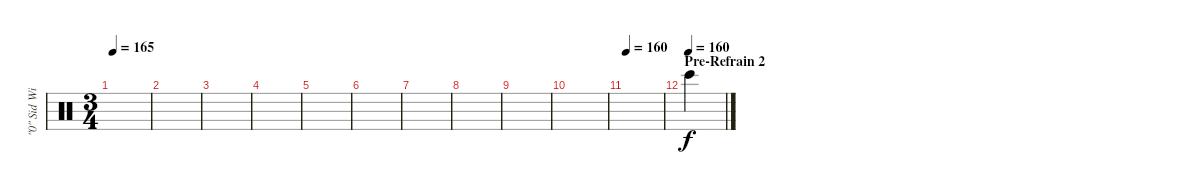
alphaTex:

\track ("\"0\" Sid Wilson (DJ)" "\"0\" Sid Wi") {instrument percussion}
\staff {score}
\articulation defaults
\ts (3 4)
\tempo 165
\clef neutral
\ks c
|
|
|
|
|
|
|
|
|
|
\tempo 160
|
\section ("" "Pre-Refrain 2")
\tempo 155
\tempo (160)
"Bongo High (hit)".4
